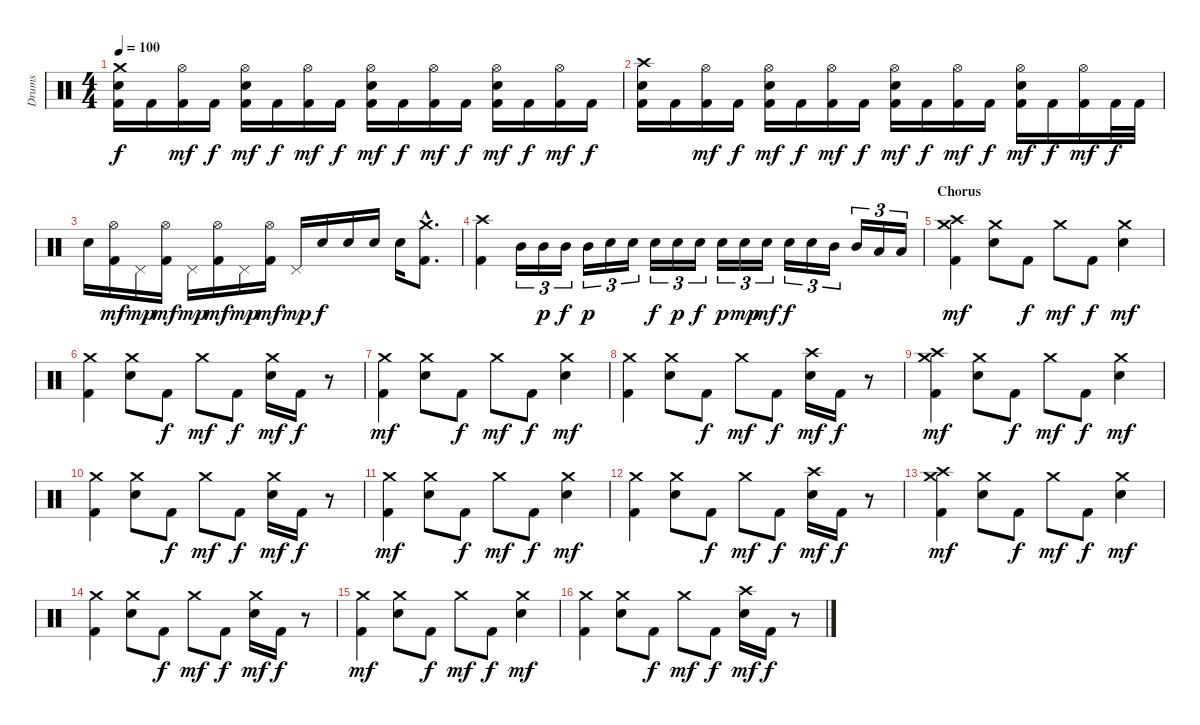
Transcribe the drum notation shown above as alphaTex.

\track ("Drums" "Drums") {instrument percussion}
\staff {score}
\articulation defaults
\ts (4 4)
\tempo 100
\clef neutral
\ks c
("Crash medium (hit)" "Electric Snare (hit)" "Kick (hit) 2").16{dy f} "Kick (hit) 2".16 ("Hi-Hat (open)" "Kick (hit) 2").16{dy mf} "Kick (hit) 2".16{dy f} ("Hi-Hat (open)" "Electric Snare (hit)" "Kick (hit) 2").16{dy mf} "Kick (hit) 2".16{dy f} ("Hi-Hat (open)" "Kick (hit) 2").16{dy mf} "Kick (hit) 2".16{dy f} ("Hi-Hat (open)" "Electric Snare (hit)" "Kick (hit) 2").16{dy mf} "Kick (hit) 2".16{dy f} ("Hi-Hat (open)" "Kick (hit) 2").16{dy mf} "Kick (hit) 2".16{dy f} ("Hi-Hat (open)" "Electric Snare (hit)" "Kick (hit) 2").16{dy mf} "Kick (hit) 2".16{dy f} ("Hi-Hat (open)" "Kick (hit) 2").16{dy mf} "Kick (hit) 2".16{dy f} |
("Crash high (hit)" "Electric Snare (hit)" "Kick (hit) 2").16 "Kick (hit) 2".16 ("Hi-Hat (open)" "Kick (hit) 2").16{dy mf} "Kick (hit) 2".16{dy f} ("Hi-Hat (open)" "Electric Snare (hit)" "Kick (hit) 2").16{dy mf} "Kick (hit) 2".16{dy f} ("Hi-Hat (open)" "Kick (hit) 2").16{dy mf} "Kick (hit) 2".16{dy f} ("Hi-Hat (open)" "Electric Snare (hit)" "Kick (hit) 2").16{dy mf} "Kick (hit) 2".16{dy f} ("Hi-Hat (open)" "Kick (hit) 2").16{dy mf} "Kick (hit) 2".16{dy f} ("Hi-Hat (open)" "Electric Snare (hit)" "Kick (hit) 2").16{dy mf} "Kick (hit) 2".16{dy f} ("Hi-Hat (open)" "Kick (hit) 2").16{dy mf} "Kick (hit) 2".32{dy f} "Kick (hit) 2".32 |
"Electric Snare (hit)".16 ("Hi-Hat (open)" "Kick (hit) 2").16{dy mf} "Pedal Hi-Hat (hit)".16{dy mp} ("Hi-Hat (open)" "Kick (hit) 2").16{dy mf} "Pedal Hi-Hat (hit)".16{dy mp} ("Hi-Hat (open)" "Kick (hit) 2").16{dy mf} "Pedal Hi-Hat (hit)".16{dy mp} ("Hi-Hat (open)" "Kick (hit) 2").16{dy mf} "Pedal Hi-Hat (hit)".16{dy mp} "Electric Snare (hit)".16{dy f} "Electric Snare (hit)".16 "Electric Snare (hit)".16 "Electric Snare (hit)".16 ("Crash medium (hit)"{hac} "Kick (hit) 2"{hac}).8{d} |
("Crash high (hit)" "Kick (hit) 2").4 "Mid Tom (hit)".16{tu (3 2)} "Mid Tom (hit)".16{tu (3 2) dy p} "Mid Tom (hit)".16{tu (3 2) dy f} "Mid Tom (hit)".16{tu (3 2) dy p} "Electric Snare (hit)".16{tu (3 2)} "Electric Snare (hit)".16{tu (3 2)} "Electric Snare (hit)".16{tu (3 2) dy f} "Electric Snare (hit)".16{tu (3 2) dy p} "Electric Snare (hit)".16{tu (3 2) dy f} "Electric Snare (hit)".16{tu (3 2) dy p} "Electric Snare (hit)".16{tu (3 2) dy mp} "Electric Snare (hit)".16{tu (3 2) dy mf} "Electric Snare (hit)".16{tu (3 2) dy f} "Electric Snare (hit)".16{tu (3 2)} "Mid Tom (hit)".16{tu (3 2)} "Mid Tom (hit)".16{tu (3 2)} "Low Tom (hit)".16{tu (3 2)} "Low Tom (hit)".16{tu (3 2)} |
\section ("" "Chorus")
("Crash medium (hit)" "Crash high (hit)" "Kick (hit) 2").4{dy mf} ("Crash medium (hit)" "Electric Snare (hit)").8 "Kick (hit) 2".8{dy f} "Crash medium (hit)".8{dy mf} "Kick (hit) 2".8{dy f} ("Crash medium (hit)" "Electric Snare (hit)").4{dy mf} |
("Crash medium (hit)" "Kick (hit) 2").4 ("Crash medium (hit)" "Electric Snare (hit)").8 "Kick (hit) 2".8{dy f} "Crash medium (hit)".8{dy mf} "Kick (hit) 2".8{dy f} ("Crash medium (hit)" "Electric Snare (hit)").16{dy mf} "Kick (hit) 2".16{dy f} r.8 |
("Crash medium (hit)" "Kick (hit) 2").4{dy mf} ("Crash medium (hit)" "Electric Snare (hit)").8 "Kick (hit) 2".8{dy f} "Crash medium (hit)".8{dy mf} "Kick (hit) 2".8{dy f} ("Crash medium (hit)" "Electric Snare (hit)").4{dy mf} |
("Crash medium (hit)" "Kick (hit) 2").4 ("Crash medium (hit)" "Electric Snare (hit)").8 "Kick (hit) 2".8{dy f} "Crash medium (hit)".8{dy mf} "Kick (hit) 2".8{dy f} ("Crash high (hit)" "Electric Snare (hit)").16{dy mf} "Kick (hit) 2".16{dy f} r.8 |
("Crash medium (hit)" "Crash high (hit)" "Kick (hit) 2").4{dy mf} ("Crash medium (hit)" "Electric Snare (hit)").8 "Kick (hit) 2".8{dy f} "Crash medium (hit)".8{dy mf} "Kick (hit) 2".8{dy f} ("Crash medium (hit)" "Electric Snare (hit)").4{dy mf} |
("Crash medium (hit)" "Kick (hit) 2").4 ("Crash medium (hit)" "Electric Snare (hit)").8 "Kick (hit) 2".8{dy f} "Crash medium (hit)".8{dy mf} "Kick (hit) 2".8{dy f} ("Crash medium (hit)" "Electric Snare (hit)").16{dy mf} "Kick (hit) 2".16{dy f} r.8 |
("Crash medium (hit)" "Kick (hit) 2").4{dy mf} ("Crash medium (hit)" "Electric Snare (hit)").8 "Kick (hit) 2".8{dy f} "Crash medium (hit)".8{dy mf} "Kick (hit) 2".8{dy f} ("Crash medium (hit)" "Electric Snare (hit)").4{dy mf} |
("Crash medium (hit)" "Kick (hit) 2").4 ("Crash medium (hit)" "Electric Snare (hit)").8 "Kick (hit) 2".8{dy f} "Crash medium (hit)".8{dy mf} "Kick (hit) 2".8{dy f} ("Crash high (hit)" "Electric Snare (hit)").16{dy mf} "Kick (hit) 2".16{dy f} r.8 |
("Crash medium (hit)" "Crash high (hit)" "Kick (hit) 2").4{dy mf} ("Crash medium (hit)" "Electric Snare (hit)").8 "Kick (hit) 2".8{dy f} "Crash medium (hit)".8{dy mf} "Kick (hit) 2".8{dy f} ("Crash medium (hit)" "Electric Snare (hit)").4{dy mf} |
("Crash medium (hit)" "Kick (hit) 2").4 ("Crash medium (hit)" "Electric Snare (hit)").8 "Kick (hit) 2".8{dy f} "Crash medium (hit)".8{dy mf} "Kick (hit) 2".8{dy f} ("Crash medium (hit)" "Electric Snare (hit)").16{dy mf} "Kick (hit) 2".16{dy f} r.8 |
("Crash medium (hit)" "Kick (hit) 2").4{dy mf} ("Crash medium (hit)" "Electric Snare (hit)").8 "Kick (hit) 2".8{dy f} "Crash medium (hit)".8{dy mf} "Kick (hit) 2".8{dy f} ("Crash medium (hit)" "Electric Snare (hit)").4{dy mf} |
("Crash medium (hit)" "Kick (hit) 2").4 ("Crash medium (hit)" "Electric Snare (hit)").8 "Kick (hit) 2".8{dy f} "Crash medium (hit)".8{dy mf} "Kick (hit) 2".8{dy f} ("Crash high (hit)" "Electric Snare (hit)").16{dy mf} "Kick (hit) 2".16{dy f} r.8
